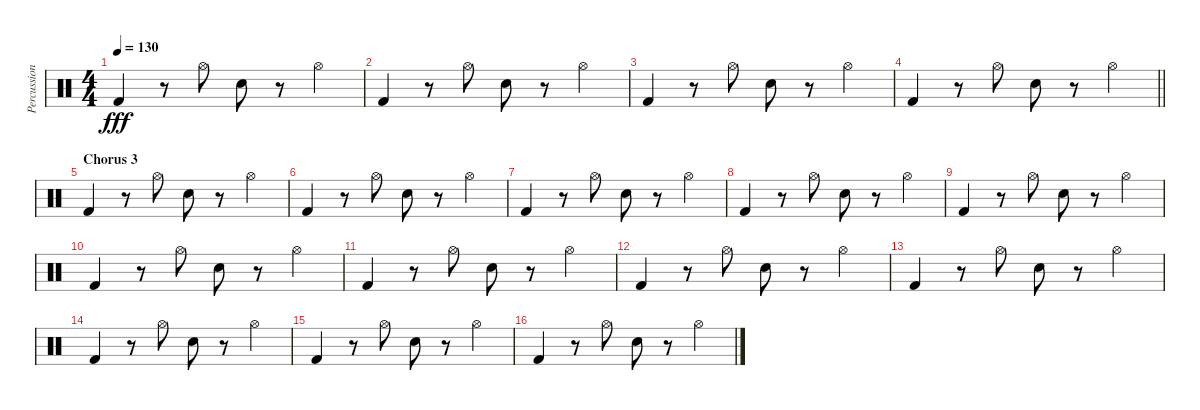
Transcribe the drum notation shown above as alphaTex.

\track ("Percussion" "Percussion") {instrument percussion}
\staff {score}
\articulation defaults
\ts (4 4)
\tempo 130
\clef neutral
\ks c "Kick (hit) 2".4{dy fff}
r.8 "Hi-Hat (open)".8 "Snare (hit) 2".8 r.8 "Hi-Hat (open)".4 |
"Kick (hit) 2".4 r.8 "Hi-Hat (open)".8 "Snare (hit) 2".8 r.8 "Hi-Hat (open)".4 |
"Kick (hit) 2".4 r.8 "Hi-Hat (open)".8 "Snare (hit) 2".8 r.8 "Hi-Hat (open)".4 |
\barLineRight lightlight "Kick (hit) 2".4
r.8 "Hi-Hat (open)".8 "Snare (hit) 2".8 r.8 "Hi-Hat (open)".4 |
\section ("" "Chorus 3")
"Kick (hit) 2".4 r.8 "Hi-Hat (open)".8 "Snare (hit) 2".8 r.8 "Hi-Hat (open)".4 |
"Kick (hit) 2".4 r.8 "Hi-Hat (open)".8 "Snare (hit) 2".8 r.8 "Hi-Hat (open)".4 |
"Kick (hit) 2".4 r.8 "Hi-Hat (open)".8 "Snare (hit) 2".8 r.8 "Hi-Hat (open)".4 |
"Kick (hit) 2".4 r.8 "Hi-Hat (open)".8 "Snare (hit) 2".8 r.8 "Hi-Hat (open)".4 |
"Kick (hit) 2".4 r.8 "Hi-Hat (open)".8 "Snare (hit) 2".8 r.8 "Hi-Hat (open)".4 |
"Kick (hit) 2".4 r.8 "Hi-Hat (open)".8 "Snare (hit) 2".8 r.8 "Hi-Hat (open)".4 |
"Kick (hit) 2".4 r.8 "Hi-Hat (open)".8 "Snare (hit) 2".8 r.8 "Hi-Hat (open)".4 |
"Kick (hit) 2".4 r.8 "Hi-Hat (open)".8 "Snare (hit) 2".8 r.8 "Hi-Hat (open)".4 |
"Kick (hit) 2".4 r.8 "Hi-Hat (open)".8 "Snare (hit) 2".8 r.8 "Hi-Hat (open)".4 |
"Kick (hit) 2".4 r.8 "Hi-Hat (open)".8 "Snare (hit) 2".8 r.8 "Hi-Hat (open)".4 |
"Kick (hit) 2".4 r.8 "Hi-Hat (open)".8 "Snare (hit) 2".8 r.8 "Hi-Hat (open)".4 |
"Kick (hit) 2".4 r.8 "Hi-Hat (open)".8 "Snare (hit) 2".8 r.8 "Hi-Hat (open)".4
